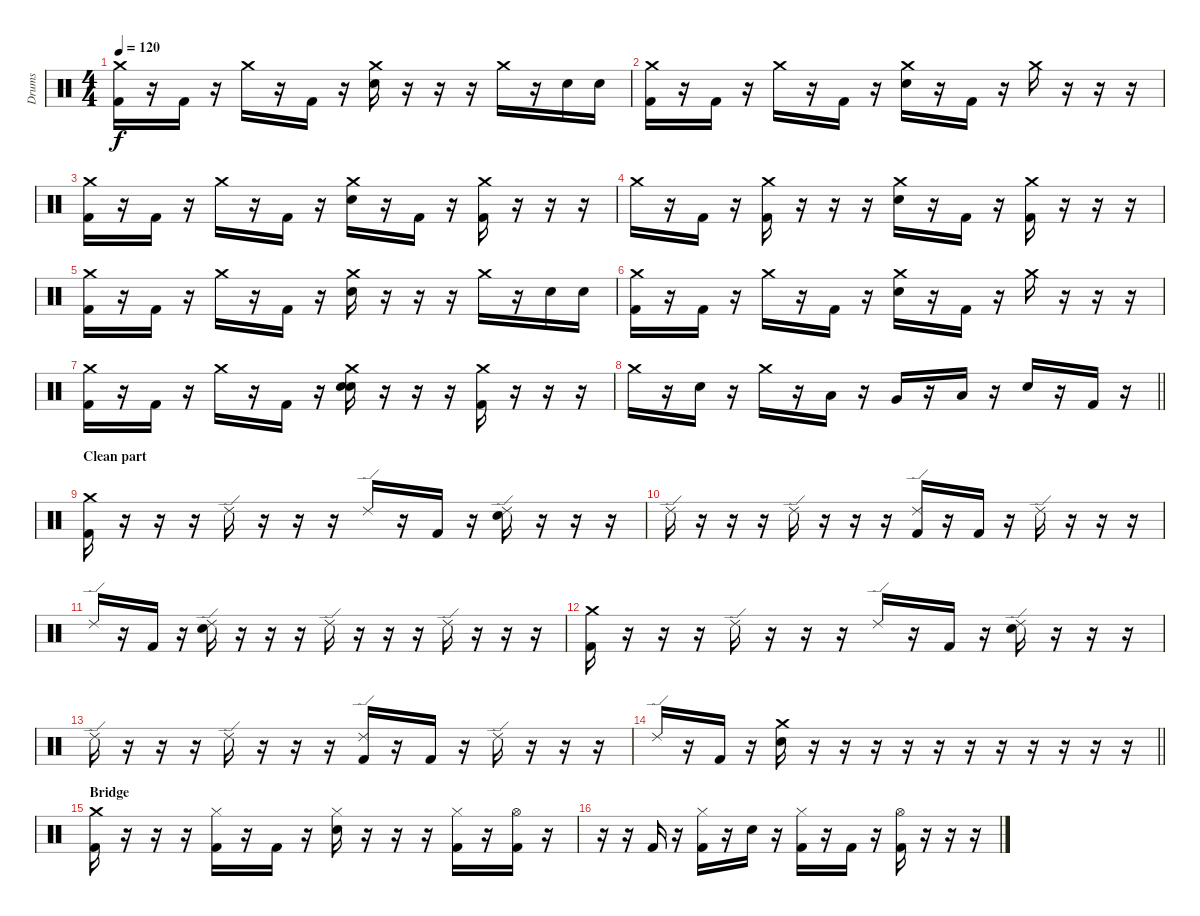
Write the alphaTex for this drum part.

\track ("Drums" "Drums") {instrument percussion}
\staff {score}
\articulation defaults
\ts (4 4)
\tempo 120
\clef neutral
\ks c
("Crash medium (hit)" "Kick (hit) 2").16{dy f} r.16 "Kick (hit) 2".16 r.16 "Crash medium (hit)".16 r.16 "Kick (hit) 2".16 r.16 ("Crash medium (hit)" "Electric Snare (hit)").16 r.16 r.16 r.16 "Crash medium (hit)".16 r.16 "Electric Snare (hit)".16 "Electric Snare (hit)".16 |
("Crash medium (hit)" "Kick (hit) 2").16 r.16 "Kick (hit) 2".16 r.16 "Crash medium (hit)".16 r.16 "Kick (hit) 2".16 r.16 ("Crash medium (hit)" "Electric Snare (hit)").16 r.16 "Kick (hit) 2".16 r.16 "Crash medium (hit)".16 r.16 r.16 r.16 |
("Crash medium (hit)" "Kick (hit) 2").16 r.16 "Kick (hit) 2".16 r.16 "Crash medium (hit)".16 r.16 "Kick (hit) 2".16 r.16 ("Crash medium (hit)" "Electric Snare (hit)").16 r.16 "Kick (hit) 2".16 r.16 ("Crash medium (hit)" "Kick (hit) 2").16 r.16 r.16 r.16 |
"Crash medium (hit)".16 r.16 "Kick (hit) 2".16 r.16 ("Crash medium (hit)" "Kick (hit) 2").16 r.16 r.16 r.16 ("Crash medium (hit)" "Electric Snare (hit)").16 r.16 "Kick (hit) 2".16 r.16 ("Crash medium (hit)" "Kick (hit) 2").16 r.16 r.16 r.16 |
("Crash medium (hit)" "Kick (hit) 2").16 r.16 "Kick (hit) 2".16 r.16 "Crash medium (hit)".16 r.16 "Kick (hit) 2".16 r.16 ("Crash medium (hit)" "Electric Snare (hit)").16 r.16 r.16 r.16 "Crash medium (hit)".16 r.16 "Electric Snare (hit)".16 "Electric Snare (hit)".16 |
("Crash medium (hit)" "Kick (hit) 2").16 r.16 "Kick (hit) 2".16 r.16 "Crash medium (hit)".16 r.16 "Kick (hit) 2".16 r.16 ("Crash medium (hit)" "Electric Snare (hit)").16 r.16 "Kick (hit) 2".16 r.16 "Crash medium (hit)".16 r.16 r.16 r.16 |
("Crash medium (hit)" "Kick (hit) 2").16 r.16 "Kick (hit) 2".16 r.16 "Crash medium (hit)".16 r.16 "Kick (hit) 2".16 r.16 ("Electric Snare (hit)" "Crash medium (hit)" "Electric Snare (hit)").16 r.16 r.16 r.16 ("Crash medium (hit)" "Kick (hit) 2").16 r.16 r.16 r.16 |
\barLineRight lightlight "Crash medium (hit)".16
r.16 "Electric Snare (hit)".16 r.16 "Crash medium (hit)".16 r.16 "Low Tom (hit)".16 r.16 "Very Low Tom (hit)".16 r.16 "Low Floor Tom (hit)".16 r.16 "Electric Snare (hit)".16 r.16 "Kick (hit) 2".16 r.16 |
\section ("" "Clean part")
("Crash medium (hit)" "Kick (hit) 2").16 r.16 r.16 r.16 "Ride (edge) 2".16 r.16 r.16 r.16 "Ride (edge) 2".16 r.16 "Kick (hit) 2".16 r.16 ("Ride (edge) 2" "Electric Snare (hit)").16 r.16 r.16 r.16 |
"Ride (edge) 2".16 r.16 r.16 r.16 "Ride (edge) 2".16 r.16 r.16 r.16 ("Ride (edge) 2" "Kick (hit) 2").16 r.16 "Kick (hit) 2".16 r.16 "Ride (edge) 2".16 r.16 r.16 r.16 |
"Ride (edge) 2".16 r.16 "Kick (hit) 2".16 r.16 ("Ride (edge) 2" "Electric Snare (hit)").16 r.16 r.16 r.16 "Ride (edge) 2".16 r.16 r.16 r.16 "Ride (edge) 2".16 r.16 r.16 r.16 |
("Crash medium (hit)" "Kick (hit) 2").16 r.16 r.16 r.16 "Ride (edge) 2".16 r.16 r.16 r.16 "Ride (edge) 2".16 r.16 "Kick (hit) 2".16 r.16 ("Ride (edge) 2" "Electric Snare (hit)").16 r.16 r.16 r.16 |
"Ride (edge) 2".16 r.16 r.16 r.16 "Ride (edge) 2".16 r.16 r.16 r.16 ("Ride (edge) 2" "Kick (hit) 2").16 r.16 "Kick (hit) 2".16 r.16 "Ride (edge) 2".16 r.16 r.16 r.16 |
\barLineRight lightlight "Ride (edge) 2".16
r.16 "Kick (hit) 2".16 r.16 ("Crash medium (hit)" "Electric Snare (hit)").16 r.16 r.16 r.16 r.16 r.16 r.16 r.16 r.16 r.16 r.16 r.16 |
\section ("" "Bridge")
("Crash medium (hit)" "Kick (hit) 2").16 r.16 r.16 r.16 ("Hi-Hat (closed)" "Kick (hit) 2").16 r.16 "Kick (hit) 2".16 r.16 ("Hi-Hat (closed)" "Electric Snare (hit)").16 r.16 r.16 r.16 ("Hi-Hat (closed)" "Kick (hit) 2").16 r.16 ("Hi-Hat (open)" "Kick (hit) 2").16 r.16 |
r.16 r.16 "Kick (hit) 2".16 r.16 ("Hi-Hat (closed)" "Kick (hit) 2").16 r.16 "Electric Snare (hit)".16 r.16 ("Hi-Hat (closed)" "Kick (hit) 2").16 r.16 "Kick (hit) 2".16 r.16 ("Hi-Hat (open)" "Kick (hit) 2").16 r.16 r.16 r.16
